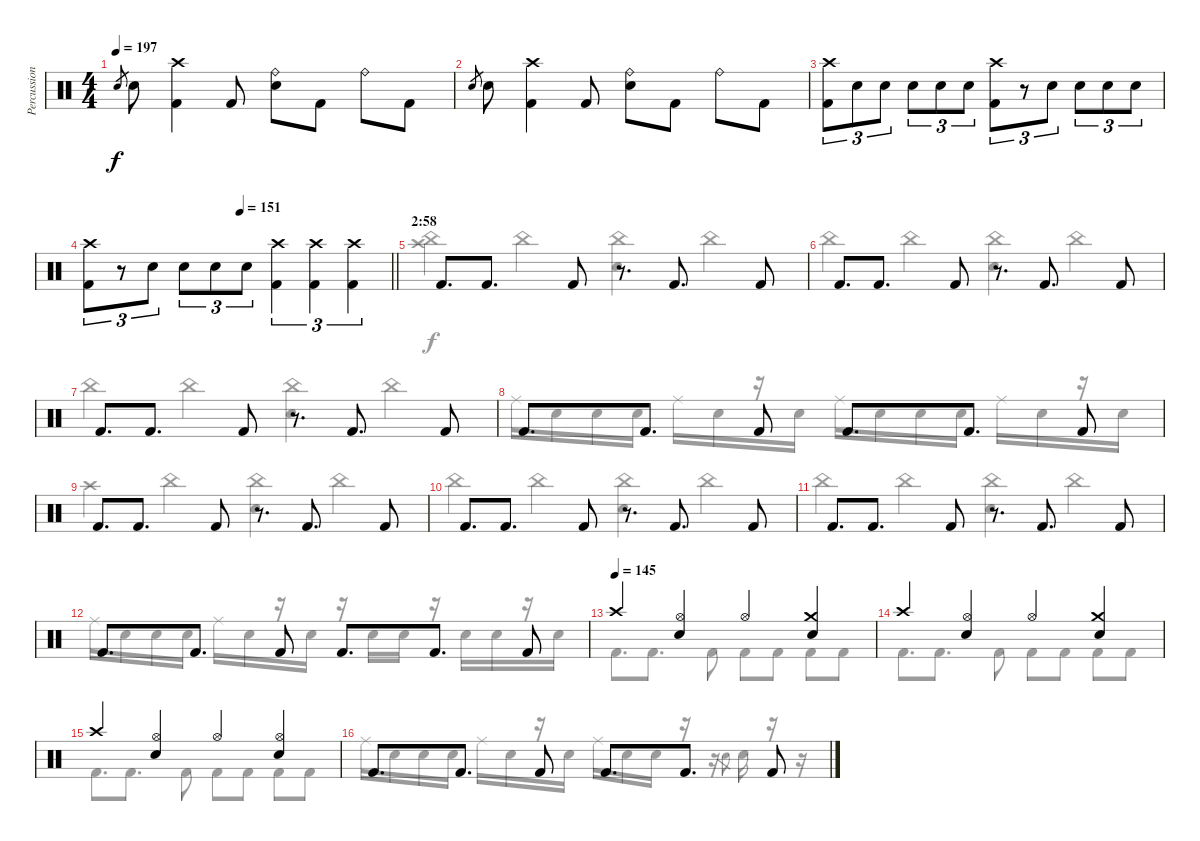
\track ("Percussion" "Percussion") {instrument percussion}
\staff {score}
\articulation defaults
\voice
\ts (4 4)
\tempo 197
\clef neutral
\ks c "Electric Snare (hit)".8{gr dy f} "Electric Snare (hit)".8
("Crash high (hit)" "Kick (hit) 2").4 "Kick (hit) 2".8 ("Electric Snare (hit)" "Ride (bell)").8 "Kick (hit) 2".8 "Ride (bell)".8 "Kick (hit) 2".8 |
"Electric Snare (hit)".8{gr} "Electric Snare (hit)".8 ("Crash high (hit)" "Kick (hit) 2").4 "Kick (hit) 2".8 ("Electric Snare (hit)" "Ride (bell)").8 "Kick (hit) 2".8 "Ride (bell)".8 "Kick (hit) 2".8 |
("Crash high (hit)" "Kick (hit) 2").8{tu (3 2)} "Electric Snare (hit)".8{tu (3 2)} "Electric Snare (hit)".8{tu (3 2)} "Electric Snare (hit)".8{tu (3 2)} "Electric Snare (hit)".8{tu (3 2)} "Electric Snare (hit)".8{tu (3 2)} ("Crash high (hit)" "Kick (hit) 2").8{tu (3 2)} r.8{tu (3 2)} "Electric Snare (hit)".8{tu (3 2)} "Electric Snare (hit)".8{tu (3 2)} "Electric Snare (hit)".8{tu (3 2)} "Electric Snare (hit)".8{tu (3 2)} |
\tempo (151 0.5)
\barLineRight lightlight
("Crash high (hit)" "Kick (hit) 2").8{tu (3 2)} r.8{tu (3 2)} "Electric Snare (hit)".8{tu (3 2)} "Electric Snare (hit)".8{tu (3 2)} "Electric Snare (hit)".8{tu (3 2)} "Electric Snare (hit)".8{tu (3 2)} ("Crash high (hit)" "Kick (hit) 2").4{tu (3 2)} ("Crash high (hit)" "Kick (hit) 2").4{tu (3 2)} ("Crash high (hit)" "Kick (hit) 2").4{tu (3 2)} |
\section ("" "2:58")
"Kick (hit) 2".8{d} "Kick (hit) 2".8{d} "Kick (hit) 2".8 r.8{d} "Kick (hit) 2".8{d} "Kick (hit) 2".8 |
"Kick (hit) 2".8{d} "Kick (hit) 2".8{d} "Kick (hit) 2".8 r.8{d} "Kick (hit) 2".8{d} "Kick (hit) 2".8 |
"Kick (hit) 2".8{d} "Kick (hit) 2".8{d} "Kick (hit) 2".8 r.8{d} "Kick (hit) 2".8{d} "Kick (hit) 2".8 |
"Kick (hit) 2".8{d} "Kick (hit) 2".8{d} "Kick (hit) 2".8 "Kick (hit) 2".8{d} "Kick (hit) 2".8{d} "Kick (hit) 2".8 |
"Kick (hit) 2".8{d} "Kick (hit) 2".8{d} "Kick (hit) 2".8 r.8{d} "Kick (hit) 2".8{d} "Kick (hit) 2".8 |
"Kick (hit) 2".8{d} "Kick (hit) 2".8{d} "Kick (hit) 2".8 r.8{d} "Kick (hit) 2".8{d} "Kick (hit) 2".8 |
"Kick (hit) 2".8{d} "Kick (hit) 2".8{d} "Kick (hit) 2".8 r.8{d} "Kick (hit) 2".8{d} "Kick (hit) 2".8 |
"Kick (hit) 2".8{d} "Kick (hit) 2".8{d} "Kick (hit) 2".8 "Kick (hit) 2".8{d} "Kick (hit) 2".8{d} "Kick (hit) 2".8 |
\tempo (145)
"Crash high (hit)".4 ("Hi-Hat (open)" "Electric Snare (hit)").4 "Hi-Hat (open)".4 ("Crash medium (hit)" "Electric Snare (hit)").4 |
"Crash high (hit)".4 ("Hi-Hat (open)" "Electric Snare (hit)").4 "Hi-Hat (open)".4 ("Crash medium (hit)" "Electric Snare (hit)").4 |
"Crash high (hit)".4 ("Hi-Hat (open)" "Electric Snare (hit)").4 "Hi-Hat (open)".4 ("Hi-Hat (open)" "Electric Snare (hit)").4 |
"Kick (hit) 2".8{d} "Kick (hit) 2".8{d} "Kick (hit) 2".8 "Kick (hit) 2".8{d} "Kick (hit) 2".8{d} "Kick (hit) 2".8
\voice
\clef neutral
\ottava regular
\simile none
\ks c
|
|
|
\barLineRight lightlight
|
("China (hit)" "Crash high (hit)").4 "China (hit)".4 ("China (hit)" "Electric Snare (hit)").4 "China (hit)".4 |
"China (hit)".4 "China (hit)".4 ("China (hit)" "Electric Snare (hit)").4 "China (hit)".4 |
"China (hit)".4 "China (hit)".4 ("China (hit)" "Electric Snare (hit)").4 "China (hit)".4 |
"Ride (middle)".16 "Electric Snare (hit)".16 "Electric Snare (hit)".16 "Electric Snare (hit)".16 "Ride (middle)".16 "Electric Snare (hit)".16 r.16 "Electric Snare (hit)".16 "Ride (middle)".16 "Electric Snare (hit)".16 "Electric Snare (hit)".16 "Electric Snare (hit)".16 "Ride (middle)".16 "Electric Snare (hit)".16 r.16 "Electric Snare (hit)".16 |
"Crash high (hit)".4 "China (hit)".4 ("China (hit)" "Electric Snare (hit)").4 "China (hit)".4 |
"China (hit)".4 "China (hit)".4 ("China (hit)" "Electric Snare (hit)").4 "China (hit)".4 |
"China (hit)".4 "China (hit)".4 ("China (hit)" "Electric Snare (hit)").4 "China (hit)".4 |
"Ride (middle)".16 "Electric Snare (hit)".16 "Electric Snare (hit)".16 "Electric Snare (hit)".16 "Ride (middle)".16 "Electric Snare (hit)".16 r.16 "Electric Snare (hit)".16 r.16 "Electric Snare (hit)".16 "Electric Snare (hit)".16 r.16 "Electric Snare (hit)".16 "Electric Snare (hit)".16 r.16 "Electric Snare (hit)".16 |
"Kick (hit) 2".8{d} "Kick (hit) 2".8{d} "Kick (hit) 2".8 "Kick (hit) 2".8 "Kick (hit) 2".8 "Kick (hit) 2".8 "Kick (hit) 2".8 |
"Kick (hit) 2".8{d} "Kick (hit) 2".8{d} "Kick (hit) 2".8 "Kick (hit) 2".8 "Kick (hit) 2".8 "Kick (hit) 2".8 "Kick (hit) 2".8 |
"Kick (hit) 2".8{d} "Kick (hit) 2".8{d} "Kick (hit) 2".8 "Kick (hit) 2".8 "Kick (hit) 2".8 "Kick (hit) 2".8 "Kick (hit) 2".8 |
"Ride (middle)".16 "Electric Snare (hit)".16 "Electric Snare (hit)".16 "Electric Snare (hit)".16 "Ride (middle)".16 "Electric Snare (hit)".16 r.16 "Electric Snare (hit)".16 "Ride (middle)".16 "Electric Snare (hit)".16 "Electric Snare (hit)".16 r.16 r.16 "Electric Snare (hit)".8{gr} "Electric Snare (hit)".16 r.16 r.16
